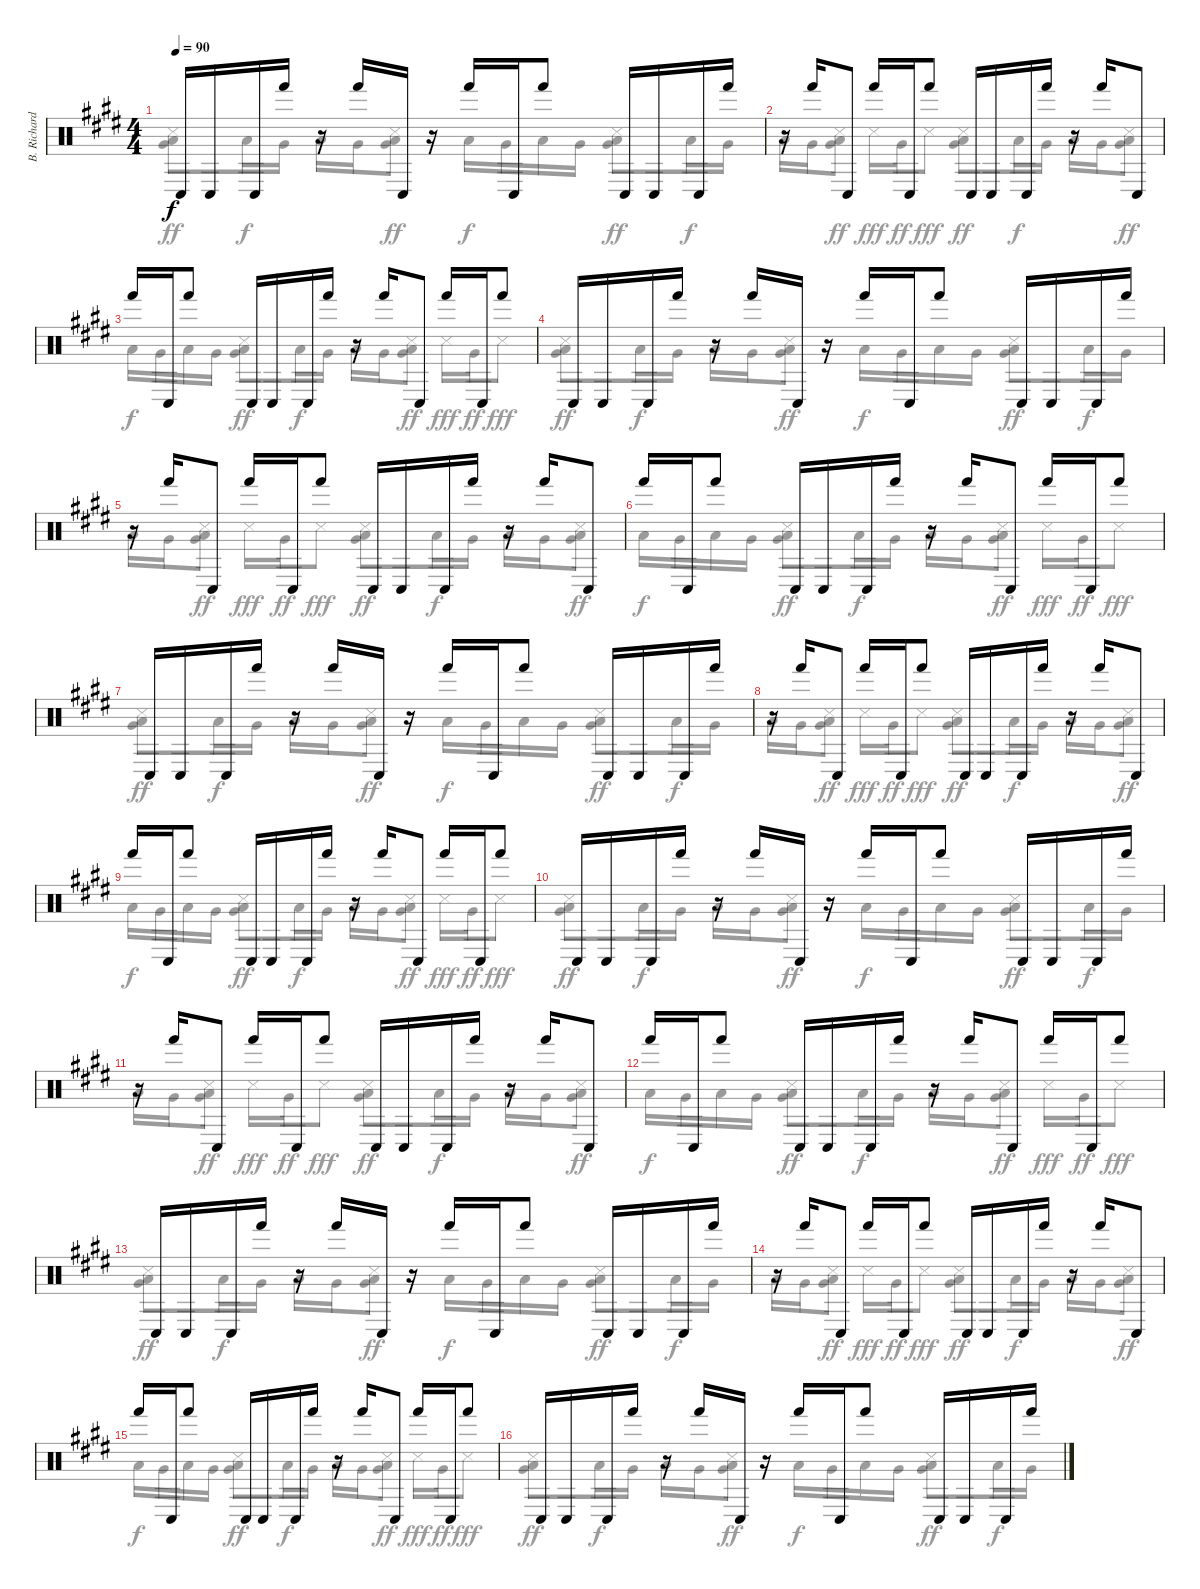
\track ("B. Richardson Percussion" "B. Richard") {instrument percussion}
\staff {score}
\articulation defaults
\voice
\ts (4 4)
\tempo 90
\clef neutral
\ks c#minor "Conga low (hit)".16{dy f} "Conga low (hit)".16 "Conga low (hit)".16 "Hand (hit)".16
r.16 "Hand (hit)".16 "Conga low (hit)".16 r.16 "Hand (hit)".16 "Conga low (hit)".16 "Hand (hit)".8 "Conga low (hit)".16 "Conga low (hit)".16 "Conga low (hit)".16 "Hand (hit)".16 |
r.16 "Hand (hit)".16 "Conga low (hit)".8 "Hand (hit)".16 "Conga low (hit)".16 "Hand (hit)".8 "Conga low (hit)".16 "Conga low (hit)".16 "Conga low (hit)".16 "Hand (hit)".16 r.16 "Hand (hit)".16 "Conga low (hit)".8 |
"Hand (hit)".16 "Conga low (hit)".16 "Hand (hit)".8 "Conga low (hit)".16 "Conga low (hit)".16 "Conga low (hit)".16 "Hand (hit)".16 r.16 "Hand (hit)".16 "Conga low (hit)".8 "Hand (hit)".16 "Conga low (hit)".16 "Hand (hit)".8 |
"Conga low (hit)".16 "Conga low (hit)".16 "Conga low (hit)".16 "Hand (hit)".16 r.16 "Hand (hit)".16 "Conga low (hit)".16 r.16 "Hand (hit)".16 "Conga low (hit)".16 "Hand (hit)".8 "Conga low (hit)".16 "Conga low (hit)".16 "Conga low (hit)".16 "Hand (hit)".16 |
r.16 "Hand (hit)".16 "Conga low (hit)".8 "Hand (hit)".16 "Conga low (hit)".16 "Hand (hit)".8 "Conga low (hit)".16 "Conga low (hit)".16 "Conga low (hit)".16 "Hand (hit)".16 r.16 "Hand (hit)".16 "Conga low (hit)".8 |
"Hand (hit)".16 "Conga low (hit)".16 "Hand (hit)".8 "Conga low (hit)".16 "Conga low (hit)".16 "Conga low (hit)".16 "Hand (hit)".16 r.16 "Hand (hit)".16 "Conga low (hit)".8 "Hand (hit)".16 "Conga low (hit)".16 "Hand (hit)".8 |
"Conga low (hit)".16 "Conga low (hit)".16 "Conga low (hit)".16 "Hand (hit)".16 r.16 "Hand (hit)".16 "Conga low (hit)".16 r.16 "Hand (hit)".16 "Conga low (hit)".16 "Hand (hit)".8 "Conga low (hit)".16 "Conga low (hit)".16 "Conga low (hit)".16 "Hand (hit)".16 |
r.16 "Hand (hit)".16 "Conga low (hit)".8 "Hand (hit)".16 "Conga low (hit)".16 "Hand (hit)".8 "Conga low (hit)".16 "Conga low (hit)".16 "Conga low (hit)".16 "Hand (hit)".16 r.16 "Hand (hit)".16 "Conga low (hit)".8 |
"Hand (hit)".16 "Conga low (hit)".16 "Hand (hit)".8 "Conga low (hit)".16 "Conga low (hit)".16 "Conga low (hit)".16 "Hand (hit)".16 r.16 "Hand (hit)".16 "Conga low (hit)".8 "Hand (hit)".16 "Conga low (hit)".16 "Hand (hit)".8 |
"Conga low (hit)".16 "Conga low (hit)".16 "Conga low (hit)".16 "Hand (hit)".16 r.16 "Hand (hit)".16 "Conga low (hit)".16 r.16 "Hand (hit)".16 "Conga low (hit)".16 "Hand (hit)".8 "Conga low (hit)".16 "Conga low (hit)".16 "Conga low (hit)".16 "Hand (hit)".16 |
r.16 "Hand (hit)".16 "Conga low (hit)".8 "Hand (hit)".16 "Conga low (hit)".16 "Hand (hit)".8 "Conga low (hit)".16 "Conga low (hit)".16 "Conga low (hit)".16 "Hand (hit)".16 r.16 "Hand (hit)".16 "Conga low (hit)".8 |
"Hand (hit)".16 "Conga low (hit)".16 "Hand (hit)".8 "Conga low (hit)".16 "Conga low (hit)".16 "Conga low (hit)".16 "Hand (hit)".16 r.16 "Hand (hit)".16 "Conga low (hit)".8 "Hand (hit)".16 "Conga low (hit)".16 "Hand (hit)".8 |
"Conga low (hit)".16 "Conga low (hit)".16 "Conga low (hit)".16 "Hand (hit)".16 r.16 "Hand (hit)".16 "Conga low (hit)".16 r.16 "Hand (hit)".16 "Conga low (hit)".16 "Hand (hit)".8 "Conga low (hit)".16 "Conga low (hit)".16 "Conga low (hit)".16 "Hand (hit)".16 |
r.16 "Hand (hit)".16 "Conga low (hit)".8 "Hand (hit)".16 "Conga low (hit)".16 "Hand (hit)".8 "Conga low (hit)".16 "Conga low (hit)".16 "Conga low (hit)".16 "Hand (hit)".16 r.16 "Hand (hit)".16 "Conga low (hit)".8 |
"Hand (hit)".16 "Conga low (hit)".16 "Hand (hit)".8 "Conga low (hit)".16 "Conga low (hit)".16 "Conga low (hit)".16 "Hand (hit)".16 r.16 "Hand (hit)".16 "Conga low (hit)".8 "Hand (hit)".16 "Conga low (hit)".16 "Hand (hit)".8 |
"Conga low (hit)".16 "Conga low (hit)".16 "Conga low (hit)".16 "Hand (hit)".16 r.16 "Hand (hit)".16 "Conga low (hit)".16 r.16 "Hand (hit)".16 "Conga low (hit)".16 "Hand (hit)".8 "Conga low (hit)".16 "Conga low (hit)".16 "Conga low (hit)".16 "Hand (hit)".16
\voice
\clef neutral
\ottava regular
\simile none
\ks c#minor
("Snare (side stick) 3" "Very Low Tom (hit)" "Low Floor Tom (hit)").8{dy ff} "Low Floor Tom (hit)".16{dy f} "Very Low Tom (hit)".16 "Low Floor Tom (hit)".16 "Very Low Tom (hit)".16 ("Snare (side stick) 3" "Very Low Tom (hit)" "Low Floor Tom (hit)").8{dy ff} "Low Floor Tom (hit)".16{dy f} "Very Low Tom (hit)".16 "Low Floor Tom (hit)".16 "Very Low Tom (hit)".16 ("Snare (side stick) 3" "Very Low Tom (hit)" "Low Floor Tom (hit)").8{dy ff} "Low Floor Tom (hit)".16{dy f} "Very Low Tom (hit)".16 |
"Low Floor Tom (hit)".16 "Very Low Tom (hit)".16 ("Snare (side stick) 3" "Very Low Tom (hit)" "Low Floor Tom (hit)").8{dy ff} "Snare (side stick) 3".16{dy fff} "Very Low Tom (hit)".16{dy ff} "Snare (side stick) 3".8{dy fff} ("Snare (side stick) 3" "Very Low Tom (hit)" "Low Floor Tom (hit)").8{dy ff} "Low Floor Tom (hit)".16{dy f} "Very Low Tom (hit)".16 "Low Floor Tom (hit)".16 "Very Low Tom (hit)".16 ("Snare (side stick) 3" "Very Low Tom (hit)" "Low Floor Tom (hit)").8{dy ff} |
"Low Floor Tom (hit)".16{dy f} "Very Low Tom (hit)".16 "Low Floor Tom (hit)".16 "Very Low Tom (hit)".16 ("Snare (side stick) 3" "Very Low Tom (hit)" "Low Floor Tom (hit)").8{dy ff} "Low Floor Tom (hit)".16{dy f} "Very Low Tom (hit)".16 "Low Floor Tom (hit)".16 "Very Low Tom (hit)".16 ("Snare (side stick) 3" "Very Low Tom (hit)" "Low Floor Tom (hit)").8{dy ff} "Snare (side stick) 3".16{dy fff} "Very Low Tom (hit)".16{dy ff} "Snare (side stick) 3".8{dy fff} |
("Snare (side stick) 3" "Very Low Tom (hit)" "Low Floor Tom (hit)").8{dy ff} "Low Floor Tom (hit)".16{dy f} "Very Low Tom (hit)".16 "Low Floor Tom (hit)".16 "Very Low Tom (hit)".16 ("Snare (side stick) 3" "Very Low Tom (hit)" "Low Floor Tom (hit)").8{dy ff} "Low Floor Tom (hit)".16{dy f} "Very Low Tom (hit)".16 "Low Floor Tom (hit)".16 "Very Low Tom (hit)".16 ("Snare (side stick) 3" "Very Low Tom (hit)" "Low Floor Tom (hit)").8{dy ff} "Low Floor Tom (hit)".16{dy f} "Very Low Tom (hit)".16 |
"Low Floor Tom (hit)".16 "Very Low Tom (hit)".16 ("Snare (side stick) 3" "Very Low Tom (hit)" "Low Floor Tom (hit)").8{dy ff} "Snare (side stick) 3".16{dy fff} "Very Low Tom (hit)".16{dy ff} "Snare (side stick) 3".8{dy fff} ("Snare (side stick) 3" "Very Low Tom (hit)" "Low Floor Tom (hit)").8{dy ff} "Low Floor Tom (hit)".16{dy f} "Very Low Tom (hit)".16 "Low Floor Tom (hit)".16 "Very Low Tom (hit)".16 ("Snare (side stick) 3" "Very Low Tom (hit)" "Low Floor Tom (hit)").8{dy ff} |
"Low Floor Tom (hit)".16{dy f} "Very Low Tom (hit)".16 "Low Floor Tom (hit)".16 "Very Low Tom (hit)".16 ("Snare (side stick) 3" "Very Low Tom (hit)" "Low Floor Tom (hit)").8{dy ff} "Low Floor Tom (hit)".16{dy f} "Very Low Tom (hit)".16 "Low Floor Tom (hit)".16 "Very Low Tom (hit)".16 ("Snare (side stick) 3" "Very Low Tom (hit)" "Low Floor Tom (hit)").8{dy ff} "Snare (side stick) 3".16{dy fff} "Very Low Tom (hit)".16{dy ff} "Snare (side stick) 3".8{dy fff} |
("Snare (side stick) 3" "Very Low Tom (hit)" "Low Floor Tom (hit)").8{dy ff} "Low Floor Tom (hit)".16{dy f} "Very Low Tom (hit)".16 "Low Floor Tom (hit)".16 "Very Low Tom (hit)".16 ("Snare (side stick) 3" "Very Low Tom (hit)" "Low Floor Tom (hit)").8{dy ff} "Low Floor Tom (hit)".16{dy f} "Very Low Tom (hit)".16 "Low Floor Tom (hit)".16 "Very Low Tom (hit)".16 ("Snare (side stick) 3" "Very Low Tom (hit)" "Low Floor Tom (hit)").8{dy ff} "Low Floor Tom (hit)".16{dy f} "Very Low Tom (hit)".16 |
"Low Floor Tom (hit)".16 "Very Low Tom (hit)".16 ("Snare (side stick) 3" "Very Low Tom (hit)" "Low Floor Tom (hit)").8{dy ff} "Snare (side stick) 3".16{dy fff} "Very Low Tom (hit)".16{dy ff} "Snare (side stick) 3".8{dy fff} ("Snare (side stick) 3" "Very Low Tom (hit)" "Low Floor Tom (hit)").8{dy ff} "Low Floor Tom (hit)".16{dy f} "Very Low Tom (hit)".16 "Low Floor Tom (hit)".16 "Very Low Tom (hit)".16 ("Snare (side stick) 3" "Very Low Tom (hit)" "Low Floor Tom (hit)").8{dy ff} |
"Low Floor Tom (hit)".16{dy f} "Very Low Tom (hit)".16 "Low Floor Tom (hit)".16 "Very Low Tom (hit)".16 ("Snare (side stick) 3" "Very Low Tom (hit)" "Low Floor Tom (hit)").8{dy ff} "Low Floor Tom (hit)".16{dy f} "Very Low Tom (hit)".16 "Low Floor Tom (hit)".16 "Very Low Tom (hit)".16 ("Snare (side stick) 3" "Very Low Tom (hit)" "Low Floor Tom (hit)").8{dy ff} "Snare (side stick) 3".16{dy fff} "Very Low Tom (hit)".16{dy ff} "Snare (side stick) 3".8{dy fff} |
("Snare (side stick) 3" "Very Low Tom (hit)" "Low Floor Tom (hit)").8{dy ff} "Low Floor Tom (hit)".16{dy f} "Very Low Tom (hit)".16 "Low Floor Tom (hit)".16 "Very Low Tom (hit)".16 ("Snare (side stick) 3" "Very Low Tom (hit)" "Low Floor Tom (hit)").8{dy ff} "Low Floor Tom (hit)".16{dy f} "Very Low Tom (hit)".16 "Low Floor Tom (hit)".16 "Very Low Tom (hit)".16 ("Snare (side stick) 3" "Very Low Tom (hit)" "Low Floor Tom (hit)").8{dy ff} "Low Floor Tom (hit)".16{dy f} "Very Low Tom (hit)".16 |
"Low Floor Tom (hit)".16 "Very Low Tom (hit)".16 ("Snare (side stick) 3" "Very Low Tom (hit)" "Low Floor Tom (hit)").8{dy ff} "Snare (side stick) 3".16{dy fff} "Very Low Tom (hit)".16{dy ff} "Snare (side stick) 3".8{dy fff} ("Snare (side stick) 3" "Very Low Tom (hit)" "Low Floor Tom (hit)").8{dy ff} "Low Floor Tom (hit)".16{dy f} "Very Low Tom (hit)".16 "Low Floor Tom (hit)".16 "Very Low Tom (hit)".16 ("Snare (side stick) 3" "Very Low Tom (hit)" "Low Floor Tom (hit)").8{dy ff} |
"Low Floor Tom (hit)".16{dy f} "Very Low Tom (hit)".16 "Low Floor Tom (hit)".16 "Very Low Tom (hit)".16 ("Snare (side stick) 3" "Very Low Tom (hit)" "Low Floor Tom (hit)").8{dy ff} "Low Floor Tom (hit)".16{dy f} "Very Low Tom (hit)".16 "Low Floor Tom (hit)".16 "Very Low Tom (hit)".16 ("Snare (side stick) 3" "Very Low Tom (hit)" "Low Floor Tom (hit)").8{dy ff} "Snare (side stick) 3".16{dy fff} "Very Low Tom (hit)".16{dy ff} "Snare (side stick) 3".8{dy fff} |
("Snare (side stick) 3" "Very Low Tom (hit)" "Low Floor Tom (hit)").8{dy ff} "Low Floor Tom (hit)".16{dy f} "Very Low Tom (hit)".16 "Low Floor Tom (hit)".16 "Very Low Tom (hit)".16 ("Snare (side stick) 3" "Very Low Tom (hit)" "Low Floor Tom (hit)").8{dy ff} "Low Floor Tom (hit)".16{dy f} "Very Low Tom (hit)".16 "Low Floor Tom (hit)".16 "Very Low Tom (hit)".16 ("Snare (side stick) 3" "Very Low Tom (hit)" "Low Floor Tom (hit)").8{dy ff} "Low Floor Tom (hit)".16{dy f} "Very Low Tom (hit)".16 |
"Low Floor Tom (hit)".16 "Very Low Tom (hit)".16 ("Snare (side stick) 3" "Very Low Tom (hit)" "Low Floor Tom (hit)").8{dy ff} "Snare (side stick) 3".16{dy fff} "Very Low Tom (hit)".16{dy ff} "Snare (side stick) 3".8{dy fff} ("Snare (side stick) 3" "Very Low Tom (hit)" "Low Floor Tom (hit)").8{dy ff} "Low Floor Tom (hit)".16{dy f} "Very Low Tom (hit)".16 "Low Floor Tom (hit)".16 "Very Low Tom (hit)".16 ("Snare (side stick) 3" "Very Low Tom (hit)" "Low Floor Tom (hit)").8{dy ff} |
"Low Floor Tom (hit)".16{dy f} "Very Low Tom (hit)".16 "Low Floor Tom (hit)".16 "Very Low Tom (hit)".16 ("Snare (side stick) 3" "Very Low Tom (hit)" "Low Floor Tom (hit)").8{dy ff} "Low Floor Tom (hit)".16{dy f} "Very Low Tom (hit)".16 "Low Floor Tom (hit)".16 "Very Low Tom (hit)".16 ("Snare (side stick) 3" "Very Low Tom (hit)" "Low Floor Tom (hit)").8{dy ff} "Snare (side stick) 3".16{dy fff} "Very Low Tom (hit)".16{dy ff} "Snare (side stick) 3".8{dy fff} |
("Snare (side stick) 3" "Very Low Tom (hit)" "Low Floor Tom (hit)").8{dy ff} "Low Floor Tom (hit)".16{dy f} "Very Low Tom (hit)".16 "Low Floor Tom (hit)".16 "Very Low Tom (hit)".16 ("Snare (side stick) 3" "Very Low Tom (hit)" "Low Floor Tom (hit)").8{dy ff} "Low Floor Tom (hit)".16{dy f} "Very Low Tom (hit)".16 "Low Floor Tom (hit)".16 "Very Low Tom (hit)".16 ("Snare (side stick) 3" "Very Low Tom (hit)" "Low Floor Tom (hit)").8{dy ff} "Low Floor Tom (hit)".16{dy f} "Very Low Tom (hit)".16
